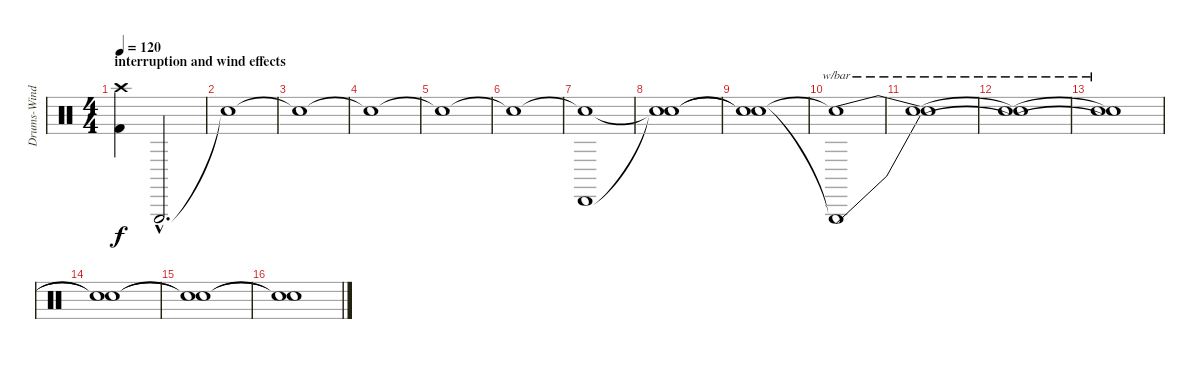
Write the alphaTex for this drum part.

\track ("Drums-Wind (Bengerg)" "Drums-Wind") {instrument percussion}
\staff {score}
\articulation defaults
\ts (4 4)
\section ("" "interruption and wind effects")
\tempo 120
\clef neutral
\ks c
("Crash high (hit)" "Kick (hit) 2").4{dy f} "Triangle (hit)"{hac}.2{d} |
"Snare (hit)"{t}.1 |
"Snare (hit)"{t}.1 |
"Snare (hit)"{t}.1 |
"Snare (hit)"{t}.1 |
"Snare (hit)"{t}.1 |
("Snare (hit)"{t} "Cabasa (hit)").1 |
("Snare (hit)"{t} "Snare (hit)"{t}).1 |
("Snare (hit)"{t} "Snare (hit)"{t}).1 |
("Snare (hit)"{t} "Triangle (hit)"{t}).1{tbe (dive default 0 0 60 24)} |
("Snare (hit)"{t} "Snare (hit)"{t}).1{tbe (hold default 0 24 60 24)} |
("Snare (hit)"{t} "Snare (hit)"{t}).1{tbe (hold default 0 24 60 24)} |
("Snare (hit)"{t} "Snare (hit)"{t}).1{tbe (custom default 0 24 45 24 60 0)} |
("Snare (hit)"{t} "Snare (hit)"{t}).1 |
("Snare (hit)"{t} "Snare (hit)"{t}).1 |
("Snare (hit)"{t} "Snare (hit)"{t}).1
